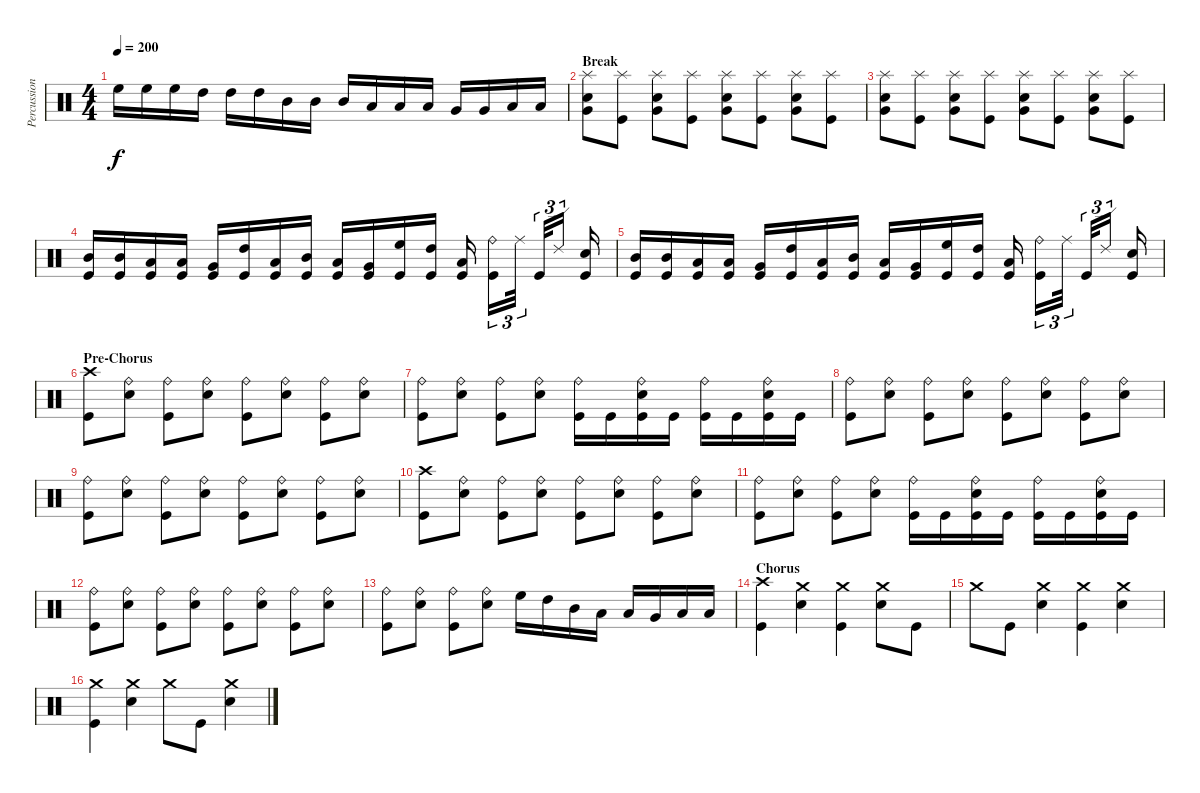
\track ("Percussion" "Percussion") {instrument percussion}
\staff {score}
\articulation defaults
\ts (4 4)
\tempo 200
\clef neutral
\ks c "High Floor Tom (hit)".16{dy f} "High Floor Tom (hit)".16 "High Floor Tom (hit)".16 "High Tom (hit)".16 "High Tom (hit)".16 "High Tom (hit)".16 "Mid Tom (hit)".16 "Mid Tom (hit)".16 "Mid Tom (hit)".16 "Low Tom (hit)".16 "Low Tom (hit)".16 "Low Tom (hit)".16 "Very Low Tom (hit)".16 "Very Low Tom (hit)".16 "Low Floor Tom (hit)".16 "Low Floor Tom (hit)".16
|
\section ("" "Break")
("Very Low Tom (hit)" "Splash (hit)" "Electric Snare (hit)").8 ("Splash (hit)" "Kick (hit)").8 ("Very Low Tom (hit)" "Splash (hit)" "Electric Snare (hit)").8 ("Splash (hit)" "Kick (hit)").8 ("Very Low Tom (hit)" "Splash (hit)" "Electric Snare (hit)").8 ("Splash (hit)" "Kick (hit)").8 ("Very Low Tom (hit)" "Splash (hit)" "Electric Snare (hit)").8 ("Splash (hit)" "Kick (hit)").8 |
("Very Low Tom (hit)" "Splash (hit)" "Electric Snare (hit)").8 ("Splash (hit)" "Kick (hit)").8 ("Very Low Tom (hit)" "Splash (hit)" "Electric Snare (hit)").8 ("Splash (hit)" "Kick (hit)").8 ("Very Low Tom (hit)" "Splash (hit)" "Electric Snare (hit)").8 ("Splash (hit)" "Kick (hit)").8 ("Very Low Tom (hit)" "Splash (hit)" "Electric Snare (hit)").8 ("Splash (hit)" "Kick (hit)").8 |
("Mid Tom (hit)" "Kick (hit)").16 ("Mid Tom (hit)" "Kick (hit)").16 ("Low Tom (hit)" "Kick (hit)").16 ("Low Tom (hit)" "Kick (hit)").16 ("Very Low Tom (hit)" "Kick (hit)").16 ("High Tom (hit)" "Kick (hit)").16 ("Low Tom (hit)" "Kick (hit)").16 ("Mid Tom (hit)" "Kick (hit)").16 ("Low Tom (hit)" "Kick (hit)").16 ("Very Low Tom (hit)" "Kick (hit)").16 ("High Floor Tom (hit)" "Kick (hit)").16 ("High Tom (hit)" "Kick (hit)").16 ("Low Tom (hit)" "Kick (hit)").16 ("Ride (bell)" "Kick (hit)").16{tu (3 2)} "Ride (middle)".32{tu (3 2)} "Kick (hit)".32{tu (3 2)} "Ride (edge) 2".16{tu (3 2)} ("Electric Snare (hit)" "Kick (hit)").16 |
("Mid Tom (hit)" "Kick (hit)").16 ("Mid Tom (hit)" "Kick (hit)").16 ("Low Tom (hit)" "Kick (hit)").16 ("Low Tom (hit)" "Kick (hit)").16 ("Very Low Tom (hit)" "Kick (hit)").16 ("High Tom (hit)" "Kick (hit)").16 ("Low Tom (hit)" "Kick (hit)").16 ("Mid Tom (hit)" "Kick (hit)").16 ("Low Tom (hit)" "Kick (hit)").16 ("Very Low Tom (hit)" "Kick (hit)").16 ("High Floor Tom (hit)" "Kick (hit)").16 ("High Tom (hit)" "Kick (hit)").16 ("Low Tom (hit)" "Kick (hit)").16 ("Ride (bell)" "Kick (hit)").16{tu (3 2)} "Ride (middle)".32{tu (3 2)} "Kick (hit)".32{tu (3 2)} "Ride (edge) 2".16{tu (3 2)} ("Electric Snare (hit)" "Kick (hit)").16 |
\section ("" "Pre-Chorus")
("Crash high (hit)" "Kick (hit)").8 ("Ride (bell)" "Electric Snare (hit)").8 ("Ride (bell)" "Kick (hit)").8 ("Ride (bell)" "Electric Snare (hit)").8 ("Ride (bell)" "Kick (hit)").8 ("Ride (bell)" "Electric Snare (hit)").8 ("Ride (bell)" "Kick (hit)").8 ("Ride (bell)" "Electric Snare (hit)").8 |
("Ride (bell)" "Kick (hit)").8 ("Ride (bell)" "Electric Snare (hit)").8 ("Ride (bell)" "Kick (hit)").8 ("Ride (bell)" "Electric Snare (hit)").8 ("Ride (bell)" "Kick (hit)").16 "Kick (hit)".16 ("Ride (bell)" "Electric Snare (hit)" "Kick (hit)").16 "Kick (hit)".16 ("Ride (bell)" "Kick (hit)").16 "Kick (hit)".16 ("Ride (bell)" "Electric Snare (hit)" "Kick (hit)").16 "Kick (hit)".16 |
("Ride (bell)" "Kick (hit)").8 ("Ride (bell)" "Electric Snare (hit)").8 ("Ride (bell)" "Kick (hit)").8 ("Ride (bell)" "Electric Snare (hit)").8 ("Ride (bell)" "Kick (hit)").8 ("Ride (bell)" "Electric Snare (hit)").8 ("Ride (bell)" "Kick (hit)").8 ("Ride (bell)" "Electric Snare (hit)").8 |
("Ride (bell)" "Kick (hit)").8 ("Ride (bell)" "Electric Snare (hit)").8 ("Ride (bell)" "Kick (hit)").8 ("Ride (bell)" "Electric Snare (hit)").8 ("Ride (bell)" "Kick (hit)").8 ("Ride (bell)" "Electric Snare (hit)").8 ("Ride (bell)" "Kick (hit)").8 ("Ride (bell)" "Electric Snare (hit)").8 |
("Crash high (hit)" "Kick (hit)").8 ("Ride (bell)" "Electric Snare (hit)").8 ("Ride (bell)" "Kick (hit)").8 ("Ride (bell)" "Electric Snare (hit)").8 ("Ride (bell)" "Kick (hit)").8 ("Ride (bell)" "Electric Snare (hit)").8 ("Ride (bell)" "Kick (hit)").8 ("Ride (bell)" "Electric Snare (hit)").8 |
("Ride (bell)" "Kick (hit)").8 ("Ride (bell)" "Electric Snare (hit)").8 ("Ride (bell)" "Kick (hit)").8 ("Ride (bell)" "Electric Snare (hit)").8 ("Ride (bell)" "Kick (hit)").16 "Kick (hit)".16 ("Ride (bell)" "Electric Snare (hit)" "Kick (hit)").16 "Kick (hit)".16 ("Ride (bell)" "Kick (hit)").16 "Kick (hit)".16 ("Ride (bell)" "Electric Snare (hit)" "Kick (hit)").16 "Kick (hit)".16 |
("Ride (bell)" "Kick (hit)").8 ("Ride (bell)" "Electric Snare (hit)").8 ("Ride (bell)" "Kick (hit)").8 ("Ride (bell)" "Electric Snare (hit)").8 ("Ride (bell)" "Kick (hit)").8 ("Ride (bell)" "Electric Snare (hit)").8 ("Ride (bell)" "Kick (hit)").8 ("Ride (bell)" "Electric Snare (hit)").8 |
("Ride (bell)" "Kick (hit)").8 ("Ride (bell)" "Electric Snare (hit)").8 ("Ride (bell)" "Kick (hit)").8 ("Ride (bell)" "Electric Snare (hit)").8 "High Floor Tom (hit)".16 "High Tom (hit)".16 "Mid Tom (hit)".16 "Low Tom (hit)".16 "Low Tom (hit)".16 "Very Low Tom (hit)".16 "Low Floor Tom (hit)".16 "Low Tom (hit)".16 |
\section ("" "Chorus")
("Crash high (hit)" "Kick (hit)").4 ("Crash medium (hit)" "Electric Snare (hit)").4 ("Crash medium (hit)" "Kick (hit)").4 ("Crash medium (hit)" "Electric Snare (hit)").8 "Kick (hit)".8 |
"Crash medium (hit)".8 "Kick (hit)".8 ("Crash medium (hit)" "Electric Snare (hit)").4 ("Crash medium (hit)" "Kick (hit)").4 ("Crash medium (hit)" "Electric Snare (hit)").4 |
("Crash medium (hit)" "Kick (hit)").4 ("Crash medium (hit)" "Electric Snare (hit)").4 "Crash medium (hit)".8 "Kick (hit)".8 ("Crash medium (hit)" "Electric Snare (hit)").4
